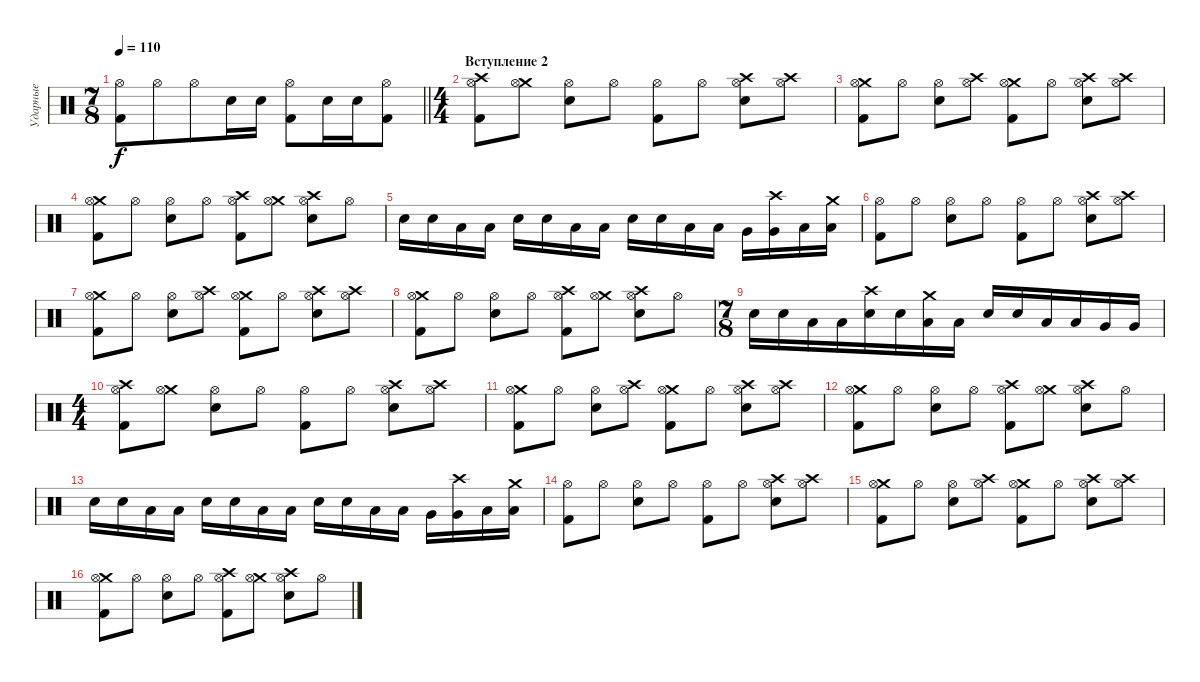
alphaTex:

\track ("Ударные" "Ударные") {instrument percussion}
\staff {score}
\articulation defaults
\ts (7 8)
\tempo 110
\clef neutral
\barLineRight lightlight
\ks c
("Hi-Hat (open)" "Kick (hit) 2").8{dy f} "Hi-Hat (open)".8 "Hi-Hat (open)".8 "Electric Snare (hit)".16 "Electric Snare (hit)".16 ("Hi-Hat (open)" "Kick (hit) 2").8 "Electric Snare (hit)".16 "Electric Snare (hit)".16 ("Hi-Hat (open)" "Kick (hit) 2").8 |
\ts (4 4)
\section ("" "Вступление 2")
("Crash high (hit)" "Hi-Hat (open)" "Kick (hit) 2").8 ("Crash medium (hit)" "Hi-Hat (open)").8 ("Hi-Hat (open)" "Snare (hit) 2").8 "Hi-Hat (open)".8 ("Hi-Hat (open)" "Kick (hit) 2").8 "Hi-Hat (open)".8 ("Hi-Hat (open)" "Crash high (hit)" "Snare (hit) 2").8 ("Crash high (hit)" "Hi-Hat (open)").8 |
("Crash medium (hit)" "Hi-Hat (open)" "Kick (hit) 2").8 "Hi-Hat (open)".8 ("Hi-Hat (open)" "Snare (hit) 2").8 ("Crash high (hit)" "Hi-Hat (open)").8 ("Crash medium (hit)" "Hi-Hat (open)" "Kick (hit) 2").8 "Hi-Hat (open)".8 ("Hi-Hat (open)" "Crash high (hit)" "Snare (hit) 2").8 ("Crash high (hit)" "Hi-Hat (open)").8 |
("Crash medium (hit)" "Hi-Hat (open)" "Kick (hit) 2").8 "Hi-Hat (open)".8 ("Hi-Hat (open)" "Snare (hit) 2").8 "Hi-Hat (open)".8 ("Crash high (hit)" "Hi-Hat (open)" "Kick (hit) 2").8 ("Crash medium (hit)" "Hi-Hat (open)").8 ("Hi-Hat (open)" "Crash high (hit)" "Snare (hit) 2").8 "Hi-Hat (open)".8 |
"Snare (hit) 2".16 "Snare (hit) 2".16 "Low Tom (hit)".16 "Low Tom (hit)".16 "Snare (hit) 2".16 "Snare (hit) 2".16 "Low Tom (hit)".16 "Low Tom (hit)".16 "Snare (hit) 2".16 "Snare (hit) 2".16 "Low Tom (hit)".16 "Low Tom (hit)".16 "Very Low Tom (hit)".16 ("Crash high (hit)" "Very Low Tom (hit)").16 "Low Floor Tom (hit)".16 ("Crash medium (hit)" "Low Floor Tom (hit)").16 |
("Hi-Hat (open)" "Kick (hit) 2").8 "Hi-Hat (open)".8 ("Hi-Hat (open)" "Snare (hit) 2").8 "Hi-Hat (open)".8 ("Hi-Hat (open)" "Kick (hit) 2").8 "Hi-Hat (open)".8 ("Hi-Hat (open)" "Crash high (hit)" "Snare (hit) 2").8 ("Crash high (hit)" "Hi-Hat (open)").8 |
("Crash medium (hit)" "Hi-Hat (open)" "Kick (hit) 2").8 "Hi-Hat (open)".8 ("Hi-Hat (open)" "Snare (hit) 2").8 ("Crash high (hit)" "Hi-Hat (open)").8 ("Crash medium (hit)" "Hi-Hat (open)" "Kick (hit) 2").8 "Hi-Hat (open)".8 ("Hi-Hat (open)" "Crash high (hit)" "Snare (hit) 2").8 ("Crash high (hit)" "Hi-Hat (open)").8 |
("Crash medium (hit)" "Hi-Hat (open)" "Kick (hit) 2").8 "Hi-Hat (open)".8 ("Hi-Hat (open)" "Snare (hit) 2").8 "Hi-Hat (open)".8 ("Crash high (hit)" "Hi-Hat (open)" "Kick (hit) 2").8 ("Crash medium (hit)" "Hi-Hat (open)").8 ("Hi-Hat (open)" "Crash high (hit)" "Snare (hit) 2").8 "Hi-Hat (open)".8 |
\ts (7 8)
"Snare (hit) 2".16 "Snare (hit) 2".16 "Low Tom (hit)".16 "Low Tom (hit)".16 ("Crash high (hit)" "Snare (hit) 2").16 "Snare (hit) 2".16 ("Crash medium (hit)" "Low Tom (hit)").16 "Low Tom (hit)".16 "Snare (hit) 2".16 "Snare (hit) 2".16 "Low Tom (hit)".16 "Low Tom (hit)".16 "Very Low Tom (hit)".16 "Very Low Tom (hit)".16 |
\ts (4 4)
("Crash high (hit)" "Hi-Hat (open)" "Kick (hit) 2").8 ("Crash medium (hit)" "Hi-Hat (open)").8 ("Hi-Hat (open)" "Snare (hit) 2").8 "Hi-Hat (open)".8 ("Hi-Hat (open)" "Kick (hit) 2").8 "Hi-Hat (open)".8 ("Hi-Hat (open)" "Crash high (hit)" "Snare (hit) 2").8 ("Crash high (hit)" "Hi-Hat (open)").8 |
("Crash medium (hit)" "Hi-Hat (open)" "Kick (hit) 2").8 "Hi-Hat (open)".8 ("Hi-Hat (open)" "Snare (hit) 2").8 ("Crash high (hit)" "Hi-Hat (open)").8 ("Crash medium (hit)" "Hi-Hat (open)" "Kick (hit) 2").8 "Hi-Hat (open)".8 ("Hi-Hat (open)" "Crash high (hit)" "Snare (hit) 2").8 ("Crash high (hit)" "Hi-Hat (open)").8 |
("Crash medium (hit)" "Hi-Hat (open)" "Kick (hit) 2").8 "Hi-Hat (open)".8 ("Hi-Hat (open)" "Snare (hit) 2").8 "Hi-Hat (open)".8 ("Crash high (hit)" "Hi-Hat (open)" "Kick (hit) 2").8 ("Crash medium (hit)" "Hi-Hat (open)").8 ("Hi-Hat (open)" "Crash high (hit)" "Snare (hit) 2").8 "Hi-Hat (open)".8 |
"Snare (hit) 2".16 "Snare (hit) 2".16 "Low Tom (hit)".16 "Low Tom (hit)".16 "Snare (hit) 2".16 "Snare (hit) 2".16 "Low Tom (hit)".16 "Low Tom (hit)".16 "Snare (hit) 2".16 "Snare (hit) 2".16 "Low Tom (hit)".16 "Low Tom (hit)".16 "Very Low Tom (hit)".16 ("Crash high (hit)" "Very Low Tom (hit)").16 "Low Floor Tom (hit)".16 ("Crash medium (hit)" "Low Floor Tom (hit)").16 |
("Hi-Hat (open)" "Kick (hit) 2").8 "Hi-Hat (open)".8 ("Hi-Hat (open)" "Snare (hit) 2").8 "Hi-Hat (open)".8 ("Hi-Hat (open)" "Kick (hit) 2").8 "Hi-Hat (open)".8 ("Hi-Hat (open)" "Crash high (hit)" "Snare (hit) 2").8 ("Crash high (hit)" "Hi-Hat (open)").8 |
("Crash medium (hit)" "Hi-Hat (open)" "Kick (hit) 2").8 "Hi-Hat (open)".8 ("Hi-Hat (open)" "Snare (hit) 2").8 ("Crash high (hit)" "Hi-Hat (open)").8 ("Crash medium (hit)" "Hi-Hat (open)" "Kick (hit) 2").8 "Hi-Hat (open)".8 ("Hi-Hat (open)" "Crash high (hit)" "Snare (hit) 2").8 ("Crash high (hit)" "Hi-Hat (open)").8 |
("Crash medium (hit)" "Hi-Hat (open)" "Kick (hit) 2").8 "Hi-Hat (open)".8 ("Hi-Hat (open)" "Snare (hit) 2").8 "Hi-Hat (open)".8 ("Crash high (hit)" "Hi-Hat (open)" "Kick (hit) 2").8 ("Crash medium (hit)" "Hi-Hat (open)").8 ("Hi-Hat (open)" "Crash high (hit)" "Snare (hit) 2").8 "Hi-Hat (open)".8
